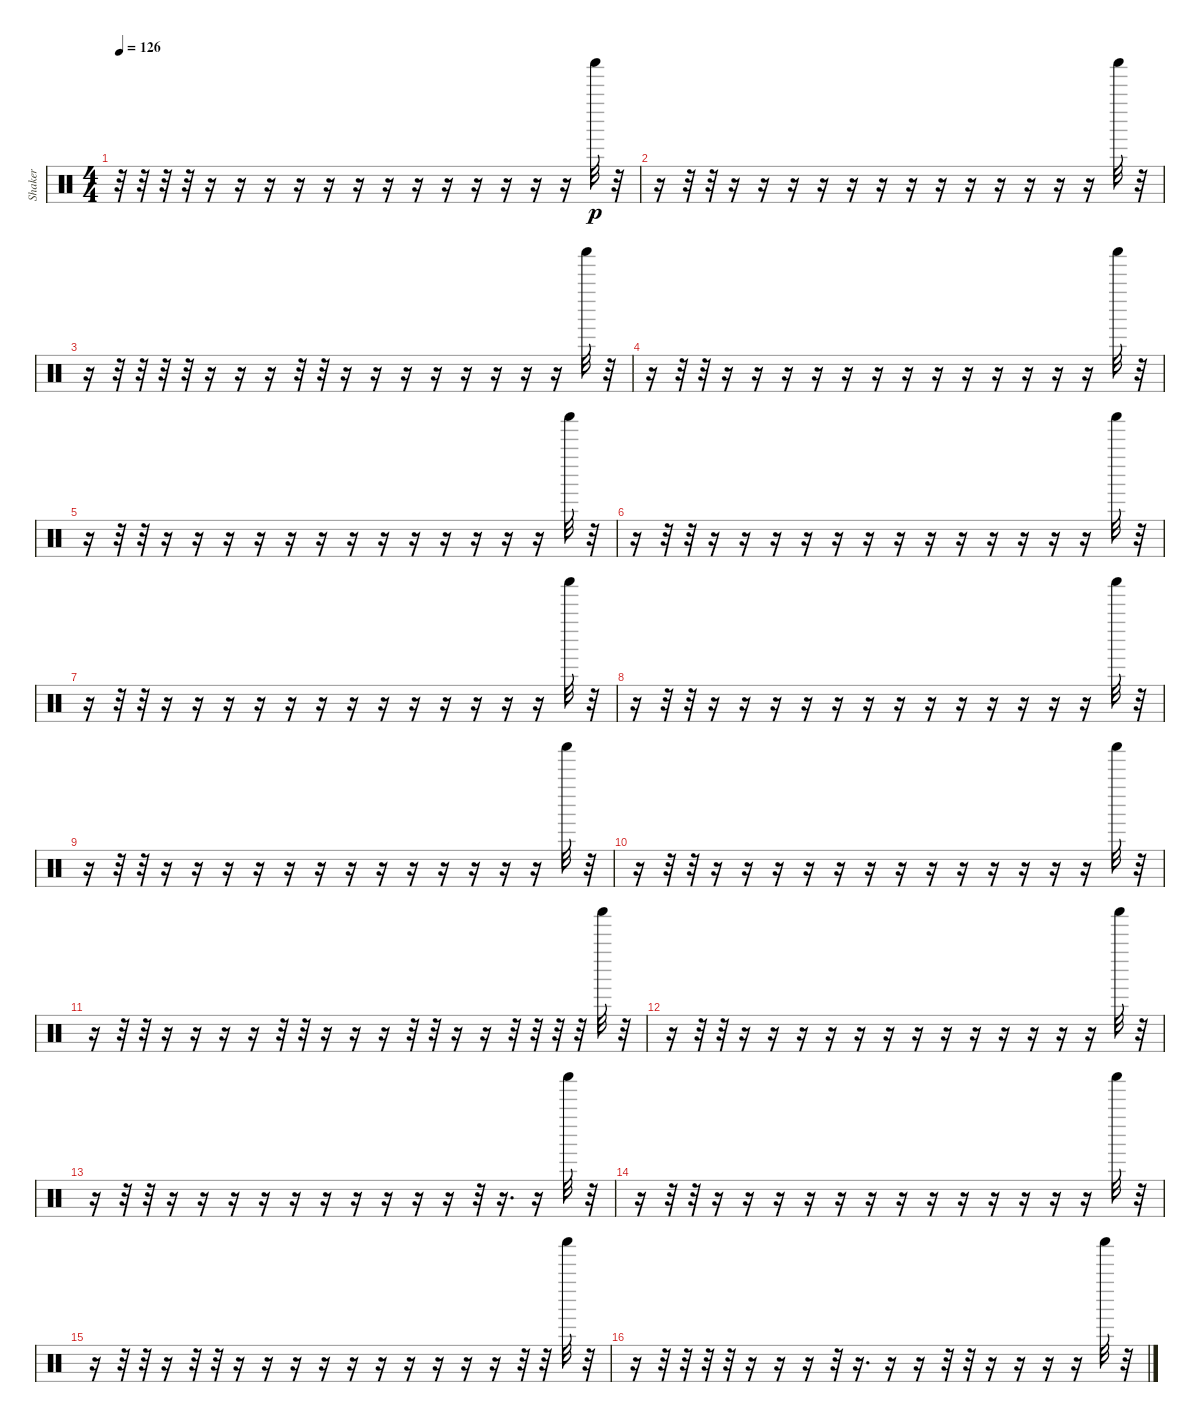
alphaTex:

\track ("Shaker" "Shaker") {instrument percussion}
\staff {score}
\articulation defaults
\ts (4 4)
\tempo 126
\clef neutral
\ks c
r.32{dy p} r.32 r.32 r.32 r.16 r.16 r.16 r.16 r.16 r.16 r.16 r.16 r.16 r.16 r.16 r.16 r.16 "Shaker (hit)".32 r.32 |
r.16 r.32 r.32 r.16 r.16 r.16 r.16 r.16 r.16 r.16 r.16 r.16 r.16 r.16 r.16 r.16 "Shaker (hit)".32 r.32 |
r.16 r.32 r.32 r.32 r.32 r.16 r.16 r.16 r.32 r.32 r.16 r.16 r.16 r.16 r.16 r.16 r.16 r.16 "Shaker (hit)".32 r.32 |
r.16 r.32 r.32 r.16 r.16 r.16 r.16 r.16 r.16 r.16 r.16 r.16 r.16 r.16 r.16 r.16 "Shaker (hit)".32 r.32 |
r.16 r.32 r.32 r.16 r.16 r.16 r.16 r.16 r.16 r.16 r.16 r.16 r.16 r.16 r.16 r.16 "Shaker (hit)".32 r.32 |
r.16 r.32 r.32 r.16 r.16 r.16 r.16 r.16 r.16 r.16 r.16 r.16 r.16 r.16 r.16 r.16 "Shaker (hit)".32 r.32 |
r.16 r.32 r.32 r.16 r.16 r.16 r.16 r.16 r.16 r.16 r.16 r.16 r.16 r.16 r.16 r.16 "Shaker (hit)".32 r.32 |
r.16 r.32 r.32 r.16 r.16 r.16 r.16 r.16 r.16 r.16 r.16 r.16 r.16 r.16 r.16 r.16 "Shaker (hit)".32 r.32 |
r.16 r.32 r.32 r.16 r.16 r.16 r.16 r.16 r.16 r.16 r.16 r.16 r.16 r.16 r.16 r.16 "Shaker (hit)".32 r.32 |
r.16 r.32 r.32 r.16 r.16 r.16 r.16 r.16 r.16 r.16 r.16 r.16 r.16 r.16 r.16 r.16 "Shaker (hit)".32 r.32 |
r.16 r.32 r.32 r.16 r.16 r.16 r.16 r.32 r.32 r.16 r.16 r.16 r.32 r.32 r.16 r.16 r.32 r.32 r.32 r.32 "Shaker (hit)".32 r.32 |
r.16 r.32 r.32 r.16 r.16 r.16 r.16 r.16 r.16 r.16 r.16 r.16 r.16 r.16 r.16 r.16 "Shaker (hit)".32 r.32 |
r.16 r.32 r.32 r.16 r.16 r.16 r.16 r.16 r.16 r.16 r.16 r.16 r.16 r.32 r.16{d} r.16 "Shaker (hit)".32 r.32 |
r.16 r.32 r.32 r.16 r.16 r.16 r.16 r.16 r.16 r.16 r.16 r.16 r.16 r.16 r.16 r.16 "Shaker (hit)".32 r.32 |
r.16 r.32 r.32 r.16 r.32 r.32 r.16 r.16 r.16 r.16 r.16 r.16 r.16 r.16 r.16 r.16 r.32 r.32 "Shaker (hit)".32 r.32 |
r.16 r.32 r.32 r.32 r.32 r.16 r.16 r.16 r.32 r.16{d} r.16 r.16 r.32 r.32 r.16 r.16 r.16 r.16 "Shaker (hit)".32 r.32
